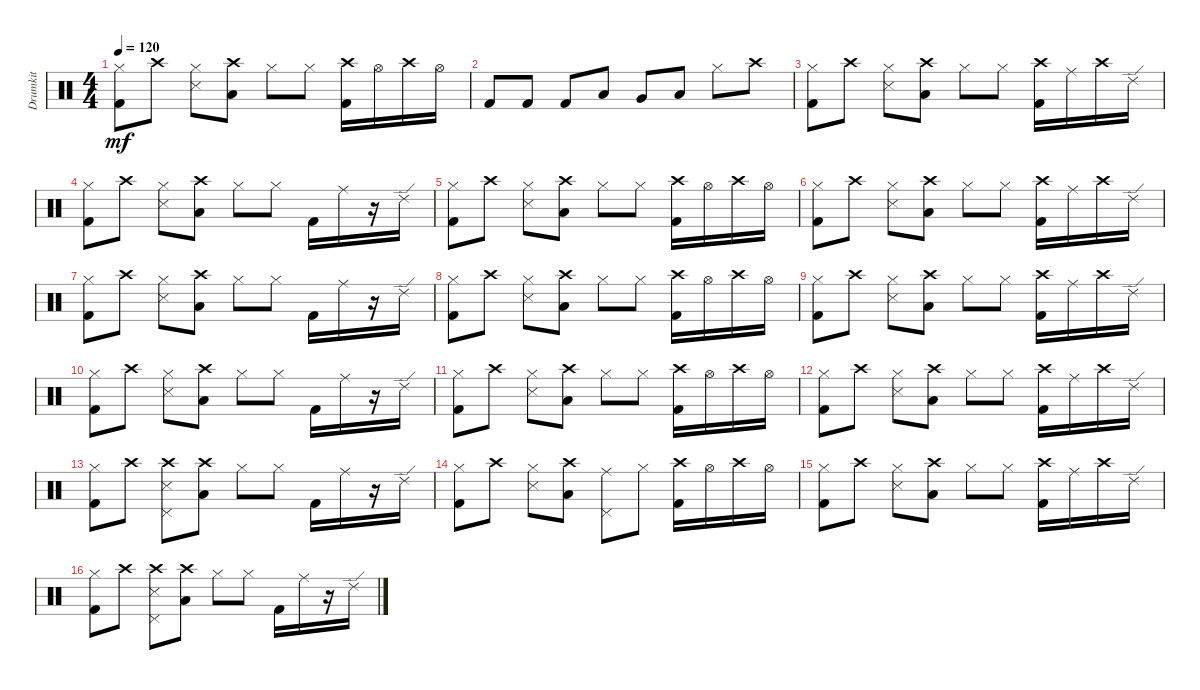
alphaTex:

\track ("Drumkit" "Drumkit") {instrument percussion}
\staff {score}
\articulation defaults
\ts (4 4)
\tempo 120
\clef neutral
\ks c
("Hi-Hat (closed)" "Kick (hit) 2").8{dy mf} "Crash high (hit)".8 ("Hi-Hat (closed)" "Snare (side stick) 3").8 ("Crash high (hit)" "Low Floor Tom (hit)").8 "Hi-Hat (closed)".8 "Hi-Hat (closed)".8 ("Crash high (hit)" "Kick (hit) 2").16 "Hi-Hat (open)".16 "Crash high (hit)".16 "Hi-Hat (open)".16 |
"Kick (hit) 2".8 "Kick (hit) 2".8 "Kick (hit) 2".8 "Low Floor Tom (hit)".8 "Very Low Tom (hit)".8 "Low Tom (hit)".8 "Hi-Hat (closed)".8 "Crash high (hit)".8 |
("Hi-Hat (closed)" "Kick (hit) 2").8 "Crash high (hit)".8 ("Hi-Hat (closed)" "Snare (side stick) 3").8 ("Crash high (hit)" "Low Floor Tom (hit)").8 "Hi-Hat (closed)".8 "Hi-Hat (closed)".8 ("Crash high (hit)" "Kick (hit) 2").16 "Ride (middle)".16 "Crash high (hit)".16 "Ride (edge) 2".16 |
("Hi-Hat (closed)" "Kick (hit) 2").8 "Crash high (hit)".8 ("Hi-Hat (closed)" "Snare (side stick) 3").8 ("Crash high (hit)" "Low Floor Tom (hit)").8 "Hi-Hat (closed)".8 "Hi-Hat (closed)".8 "Kick (hit) 2".16 "Ride (middle)".16 r.16 "Ride (edge) 2".16 |
("Hi-Hat (closed)" "Kick (hit) 2").8 "Crash high (hit)".8 ("Hi-Hat (closed)" "Snare (side stick) 3").8 ("Crash high (hit)" "Low Floor Tom (hit)").8 "Hi-Hat (closed)".8 "Hi-Hat (closed)".8 ("Crash high (hit)" "Kick (hit) 2").16 "Hi-Hat (open)".16 "Crash high (hit)".16 "Hi-Hat (open)".16 |
("Hi-Hat (closed)" "Kick (hit) 2").8 "Crash high (hit)".8 ("Hi-Hat (closed)" "Snare (side stick) 3").8 ("Crash high (hit)" "Low Floor Tom (hit)").8 "Hi-Hat (closed)".8 "Hi-Hat (closed)".8 ("Crash high (hit)" "Kick (hit) 2").16 "Ride (middle)".16 "Crash high (hit)".16 "Ride (edge) 2".16 |
("Hi-Hat (closed)" "Kick (hit) 2").8 "Crash high (hit)".8 ("Hi-Hat (closed)" "Snare (side stick) 3").8 ("Crash high (hit)" "Low Floor Tom (hit)").8 "Hi-Hat (closed)".8 "Hi-Hat (closed)".8 "Kick (hit) 2".16 "Ride (middle)".16 r.16 "Ride (edge) 2".16 |
("Hi-Hat (closed)" "Kick (hit) 2").8 "Crash high (hit)".8 ("Hi-Hat (closed)" "Snare (side stick) 3").8 ("Crash high (hit)" "Low Floor Tom (hit)").8 "Hi-Hat (closed)".8 "Hi-Hat (closed)".8 ("Crash high (hit)" "Kick (hit) 2").16 "Hi-Hat (open)".16 "Crash high (hit)".16 "Hi-Hat (open)".16 |
("Hi-Hat (closed)" "Kick (hit) 2").8 "Crash high (hit)".8 ("Hi-Hat (closed)" "Snare (side stick) 3").8 ("Crash high (hit)" "Low Floor Tom (hit)").8 "Hi-Hat (closed)".8 "Hi-Hat (closed)".8 ("Crash high (hit)" "Kick (hit) 2").16 "Ride (middle)".16 "Crash high (hit)".16 "Ride (edge) 2".16 |
("Hi-Hat (closed)" "Kick (hit) 2").8 "Crash high (hit)".8 ("Hi-Hat (closed)" "Snare (side stick) 3").8 ("Crash high (hit)" "Low Floor Tom (hit)").8 "Hi-Hat (closed)".8 "Hi-Hat (closed)".8 "Kick (hit) 2".16 "Ride (middle)".16 r.16 "Ride (edge) 2".16 |
("Hi-Hat (closed)" "Kick (hit) 2").8 "Crash high (hit)".8 ("Hi-Hat (closed)" "Snare (side stick) 3").8 ("Crash high (hit)" "Low Floor Tom (hit)").8 "Hi-Hat (closed)".8 "Hi-Hat (closed)".8 ("Crash high (hit)" "Kick (hit) 2").16 "Hi-Hat (open)".16 "Crash high (hit)".16 "Hi-Hat (open)".16 |
("Hi-Hat (closed)" "Kick (hit) 2").8 "Crash high (hit)".8 ("Hi-Hat (closed)" "Snare (side stick) 3").8 ("Crash high (hit)" "Low Floor Tom (hit)").8 "Hi-Hat (closed)".8 "Hi-Hat (closed)".8 ("Crash high (hit)" "Kick (hit) 2").16 "Ride (middle)".16 "Crash high (hit)".16 "Ride (edge) 2".16 |
("Hi-Hat (closed)" "Kick (hit) 2").8 "Crash high (hit)".8 ("Snare (side stick) 3" "Pedal Hi-Hat (hit)" "Crash high (hit)").8 ("Crash high (hit)" "Low Floor Tom (hit)").8 "Hi-Hat (closed)".8 "Hi-Hat (closed)".8 "Kick (hit) 2".16 "Ride (middle)".16 r.16 "Ride (edge) 2".16 |
("Hi-Hat (closed)" "Kick (hit) 2").8 "Crash high (hit)".8 ("Hi-Hat (closed)" "Snare (side stick) 3").8 ("Crash high (hit)" "Low Floor Tom (hit)").8 ("Pedal Hi-Hat (hit)" "Ride (middle)").8 "Hi-Hat (closed)".8 ("Crash high (hit)" "Kick (hit) 2").16 "Hi-Hat (open)".16 "Crash high (hit)".16 "Hi-Hat (open)".16 |
("Hi-Hat (closed)" "Kick (hit) 2").8 "Crash high (hit)".8 ("Hi-Hat (closed)" "Snare (side stick) 3").8 ("Crash high (hit)" "Low Floor Tom (hit)").8 "Hi-Hat (closed)".8 "Hi-Hat (closed)".8 ("Crash high (hit)" "Kick (hit) 2").16 "Ride (middle)".16 "Crash high (hit)".16 "Ride (edge) 2".16 |
("Hi-Hat (closed)" "Kick (hit) 2").8 "Crash high (hit)".8 ("Snare (side stick) 3" "Pedal Hi-Hat (hit)" "Crash high (hit)").8 ("Crash high (hit)" "Low Floor Tom (hit)").8 "Hi-Hat (closed)".8 "Hi-Hat (closed)".8 "Kick (hit) 2".16 "Ride (middle)".16 r.16 "Ride (edge) 2".16
